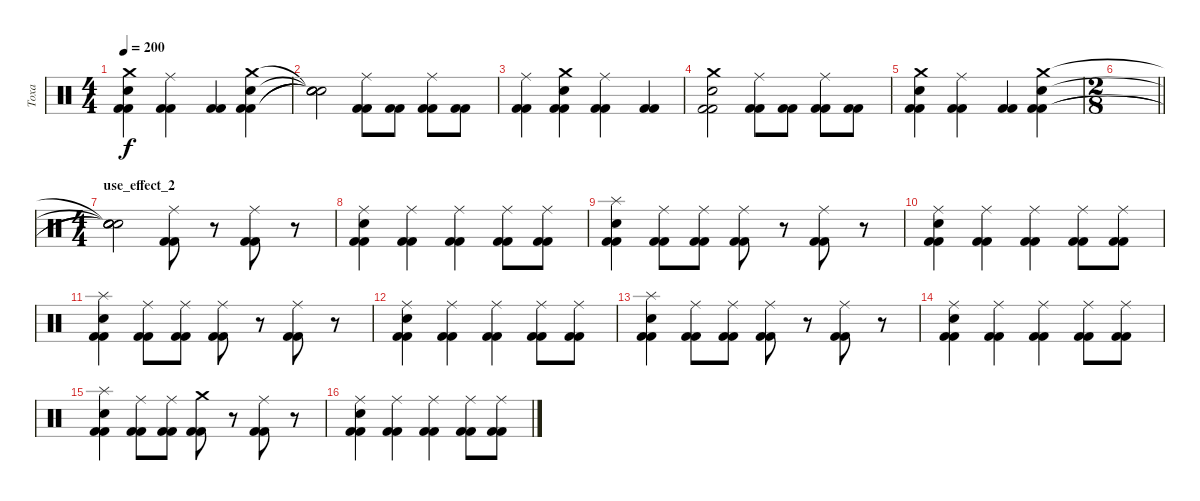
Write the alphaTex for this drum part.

\track ("Toxa" "Toxa") {instrument percussion}
\staff {score}
\articulation defaults
\ts (4 4)
\tempo 200
\clef neutral
\ks c
("Crash medium (hit)" "Kick (hit) 2" "Electric Snare (hit)" "Kick (hit) 2").4{dy f} ("Kick (hit) 2" "Ride (middle)" "Kick (hit) 2").4 ("Kick (hit) 2" "Kick (hit) 2").4 ("Crash medium (hit)" "Kick (hit) 2" "Electric Snare (hit)" "Kick (hit) 2").4 |
("Snare (hit)"{t} "Snare (hit)"{t} "Snare (hit)"{t} "Snare (hit)"{t}).2 ("Kick (hit) 2" "Ride (middle)" "Kick (hit) 2").8 ("Kick (hit) 2" "Kick (hit) 2").8 ("Kick (hit) 2" "Ride (middle)" "Kick (hit) 2").8 ("Kick (hit) 2" "Kick (hit) 2").8 |
("Kick (hit) 2" "Ride (middle)" "Kick (hit) 2").4 ("Kick (hit) 2" "Electric Snare (hit)" "Kick (hit) 2" "Crash medium (hit)").4 ("Kick (hit) 2" "Ride (middle)" "Kick (hit) 2").4 ("Kick (hit) 2" "Kick (hit) 2").4 |
("Crash medium (hit)" "Kick (hit) 2" "Electric Snare (hit)" "Kick (hit) 2").2 ("Kick (hit) 2" "Ride (middle)" "Kick (hit) 2").8 ("Kick (hit) 2" "Kick (hit) 2").8 ("Ride (middle)" "Kick (hit) 2" "Kick (hit) 2").8 ("Kick (hit) 2" "Kick (hit) 2").8 |
("Crash medium (hit)" "Kick (hit) 2" "Electric Snare (hit)" "Kick (hit) 2").4 ("Kick (hit) 2" "Ride (middle)" "Kick (hit) 2").4 ("Kick (hit) 2" "Kick (hit) 2").4 ("Crash medium (hit)" "Kick (hit) 2" "Electric Snare (hit)" "Kick (hit) 2").4 |
\ts (2 8)
\barLineRight lightlight
|
\ts (4 4)
\section ("" "use_effect_2")
("Snare (hit)"{t} "Snare (hit)"{t} "Snare (hit)"{t} "Snare (hit)"{t}).2 ("Kick (hit) 2" "Kick (hit) 2" "Ride (middle)").8 r.8 ("Kick (hit) 2" "Kick (hit) 2" "Ride (middle)").8 r.8 |
("Electric Snare (hit)" "Kick (hit) 2" "Kick (hit) 2" "Ride (middle)").4 ("Kick (hit) 2" "Kick (hit) 2" "Ride (middle)").4 ("Kick (hit) 2" "Kick (hit) 2" "Ride (middle)").4 ("Kick (hit) 2" "Kick (hit) 2" "Ride (middle)").8 ("Kick (hit) 2" "Kick (hit) 2" "Ride (middle)").8 |
("Electric Snare (hit)" "Kick (hit) 2" "Kick (hit) 2" "Splash (hit)").4 ("Ride (middle)" "Kick (hit) 2" "Kick (hit) 2").8 ("Ride (middle)" "Kick (hit) 2" "Kick (hit) 2").8 ("Kick (hit) 2" "Kick (hit) 2" "Ride (middle)").8 r.8 ("Kick (hit) 2" "Kick (hit) 2" "Ride (middle)").8 r.8 |
("Electric Snare (hit)" "Kick (hit) 2" "Kick (hit) 2" "Ride (middle)").4 ("Kick (hit) 2" "Kick (hit) 2" "Ride (middle)").4 ("Kick (hit) 2" "Kick (hit) 2" "Ride (middle)").4 ("Kick (hit) 2" "Kick (hit) 2" "Ride (middle)").8 ("Kick (hit) 2" "Kick (hit) 2" "Ride (middle)").8 |
("Electric Snare (hit)" "Kick (hit) 2" "Kick (hit) 2" "Splash (hit)").4 ("Ride (middle)" "Kick (hit) 2" "Kick (hit) 2").8 ("Ride (middle)" "Kick (hit) 2" "Kick (hit) 2").8 ("Kick (hit) 2" "Kick (hit) 2" "Ride (middle)").8 r.8 ("Kick (hit) 2" "Kick (hit) 2" "Ride (middle)").8 r.8 |
("Electric Snare (hit)" "Kick (hit) 2" "Kick (hit) 2" "Ride (middle)").4 ("Kick (hit) 2" "Kick (hit) 2" "Ride (middle)").4 ("Kick (hit) 2" "Kick (hit) 2" "Ride (middle)").4 ("Kick (hit) 2" "Kick (hit) 2" "Ride (middle)").8 ("Kick (hit) 2" "Kick (hit) 2" "Ride (middle)").8 |
("Electric Snare (hit)" "Kick (hit) 2" "Kick (hit) 2" "Splash (hit)").4 ("Ride (middle)" "Kick (hit) 2" "Kick (hit) 2").8 ("Ride (middle)" "Kick (hit) 2" "Kick (hit) 2").8 ("Kick (hit) 2" "Kick (hit) 2" "Ride (middle)").8 r.8 ("Kick (hit) 2" "Kick (hit) 2" "Ride (middle)").8 r.8 |
("Electric Snare (hit)" "Kick (hit) 2" "Kick (hit) 2" "Ride (middle)").4 ("Kick (hit) 2" "Kick (hit) 2" "Ride (middle)").4 ("Kick (hit) 2" "Kick (hit) 2" "Ride (middle)").4 ("Kick (hit) 2" "Kick (hit) 2" "Ride (middle)").8 ("Kick (hit) 2" "Kick (hit) 2" "Ride (middle)").8 |
("Electric Snare (hit)" "Kick (hit) 2" "Kick (hit) 2" "Splash (hit)").4 ("Ride (middle)" "Kick (hit) 2" "Kick (hit) 2").8 ("Ride (middle)" "Kick (hit) 2" "Kick (hit) 2").8 ("Kick (hit) 2" "Kick (hit) 2" "Crash medium (hit)").8 r.8 ("Kick (hit) 2" "Kick (hit) 2" "Ride (middle)").8 r.8 |
("Electric Snare (hit)" "Kick (hit) 2" "Kick (hit) 2" "Ride (middle)").4 ("Kick (hit) 2" "Kick (hit) 2" "Ride (middle)").4 ("Kick (hit) 2" "Kick (hit) 2" "Ride (middle)").4 ("Kick (hit) 2" "Kick (hit) 2" "Ride (middle)").8 ("Kick (hit) 2" "Kick (hit) 2" "Ride (middle)").8
